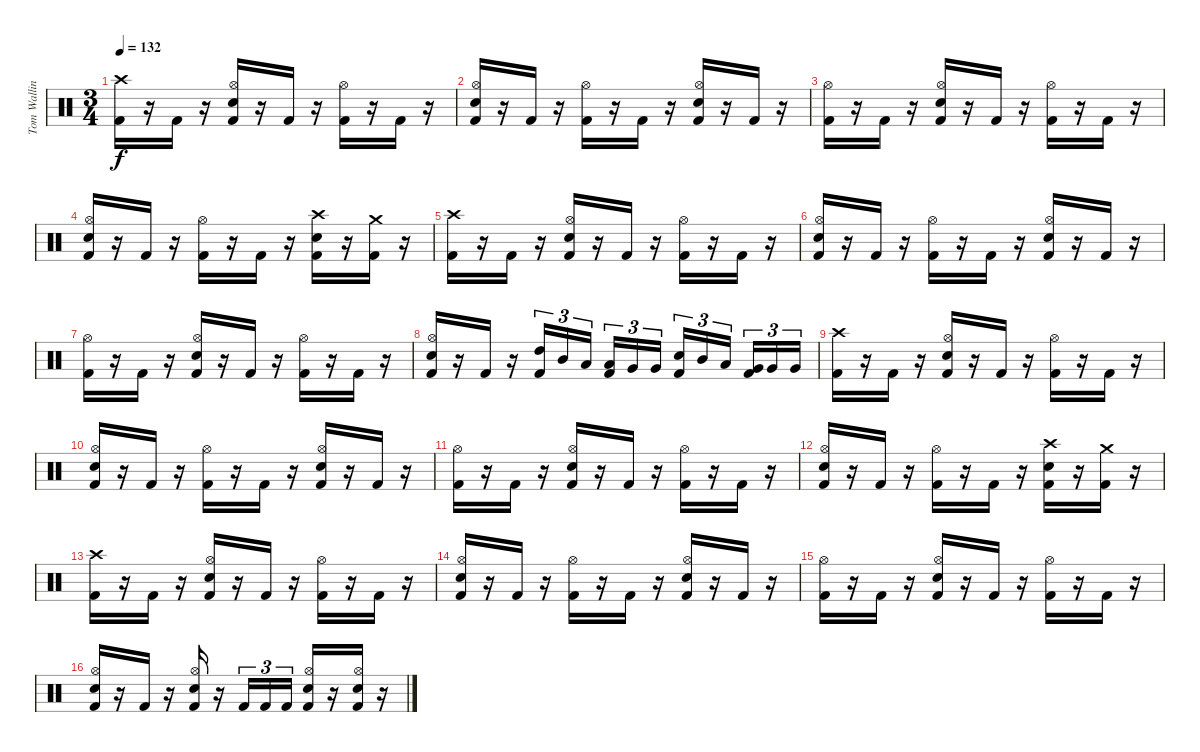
\track ("Tom Walling [Drums]" "Tom Wallin") {instrument percussion}
\staff {score}
\articulation defaults
\ts (3 4)
\tempo 132
\clef neutral
\ks c
("Crash high (hit)" "Kick (hit) 2").16{dy f} r.16 "Kick (hit) 2".16 r.16 ("Hi-Hat (open)" "Electric Snare (hit)" "Kick (hit) 2").16 r.16 "Kick (hit) 2".16 r.16 ("Hi-Hat (open)" "Kick (hit) 2").16 r.16 "Kick (hit) 2".16 r.16 |
("Hi-Hat (open)" "Electric Snare (hit)" "Kick (hit) 2").16 r.16 "Kick (hit) 2".16 r.16 ("Hi-Hat (open)" "Kick (hit) 2").16 r.16 "Kick (hit) 2".16 r.16 ("Hi-Hat (open)" "Electric Snare (hit)" "Kick (hit) 2").16 r.16 "Kick (hit) 2".16 r.16 |
("Hi-Hat (open)" "Kick (hit) 2").16 r.16 "Kick (hit) 2".16 r.16 ("Hi-Hat (open)" "Electric Snare (hit)" "Kick (hit) 2").16 r.16 "Kick (hit) 2".16 r.16 ("Hi-Hat (open)" "Kick (hit) 2").16 r.16 "Kick (hit) 2".16 r.16 |
("Hi-Hat (open)" "Electric Snare (hit)" "Kick (hit) 2").16 r.16 "Kick (hit) 2".16 r.16 ("Hi-Hat (open)" "Kick (hit) 2").16 r.16 "Kick (hit) 2".16 r.16 ("Crash high (hit)" "Electric Snare (hit)" "Kick (hit) 2").16 r.16 ("Crash medium (hit)" "Kick (hit) 2").16 r.16 |
("Crash high (hit)" "Kick (hit) 2").16 r.16 "Kick (hit) 2".16 r.16 ("Hi-Hat (open)" "Electric Snare (hit)" "Kick (hit) 2").16 r.16 "Kick (hit) 2".16 r.16 ("Hi-Hat (open)" "Kick (hit) 2").16 r.16 "Kick (hit) 2".16 r.16 |
("Hi-Hat (open)" "Electric Snare (hit)" "Kick (hit) 2").16 r.16 "Kick (hit) 2".16 r.16 ("Hi-Hat (open)" "Kick (hit) 2").16 r.16 "Kick (hit) 2".16 r.16 ("Hi-Hat (open)" "Electric Snare (hit)" "Kick (hit) 2").16 r.16 "Kick (hit) 2".16 r.16 |
("Hi-Hat (open)" "Kick (hit) 2").16 r.16 "Kick (hit) 2".16 r.16 ("Hi-Hat (open)" "Electric Snare (hit)" "Kick (hit) 2").16 r.16 "Kick (hit) 2".16 r.16 ("Hi-Hat (open)" "Kick (hit) 2").16 r.16 "Kick (hit) 2".16 r.16 |
("Hi-Hat (open)" "Electric Snare (hit)" "Kick (hit) 2").16 r.16 "Kick (hit) 2".16 r.16 ("High Tom (hit)" "Kick (hit) 2").16{tu (3 2)} "Mid Tom (hit)".16{tu (3 2)} "Low Tom (hit)".16{tu (3 2)} ("Low Tom (hit)" "Kick (hit) 2").16{tu (3 2)} "Very Low Tom (hit)".16{tu (3 2)} "Very Low Tom (hit)".16{tu (3 2)} ("Electric Snare (hit)" "Kick (hit) 2").16{tu (3 2)} "Mid Tom (hit)".16{tu (3 2)} "Low Tom (hit)".16{tu (3 2)} ("Very Low Tom (hit)" "Kick (hit) 2").16{tu (3 2)} "Very Low Tom (hit)".16{tu (3 2)} "Very Low Tom (hit)".16{tu (3 2)} |
("Crash high (hit)" "Kick (hit) 2").16 r.16 "Kick (hit) 2".16 r.16 ("Hi-Hat (open)" "Electric Snare (hit)" "Kick (hit) 2").16 r.16 "Kick (hit) 2".16 r.16 ("Hi-Hat (open)" "Kick (hit) 2").16 r.16 "Kick (hit) 2".16 r.16 |
("Hi-Hat (open)" "Electric Snare (hit)" "Kick (hit) 2").16 r.16 "Kick (hit) 2".16 r.16 ("Hi-Hat (open)" "Kick (hit) 2").16 r.16 "Kick (hit) 2".16 r.16 ("Hi-Hat (open)" "Electric Snare (hit)" "Kick (hit) 2").16 r.16 "Kick (hit) 2".16 r.16 |
("Hi-Hat (open)" "Kick (hit) 2").16 r.16 "Kick (hit) 2".16 r.16 ("Hi-Hat (open)" "Electric Snare (hit)" "Kick (hit) 2").16 r.16 "Kick (hit) 2".16 r.16 ("Hi-Hat (open)" "Kick (hit) 2").16 r.16 "Kick (hit) 2".16 r.16 |
("Hi-Hat (open)" "Electric Snare (hit)" "Kick (hit) 2").16 r.16 "Kick (hit) 2".16 r.16 ("Hi-Hat (open)" "Kick (hit) 2").16 r.16 "Kick (hit) 2".16 r.16 ("Crash high (hit)" "Electric Snare (hit)" "Kick (hit) 2").16 r.16 ("Crash medium (hit)" "Kick (hit) 2").16 r.16 |
("Crash high (hit)" "Kick (hit) 2").16 r.16 "Kick (hit) 2".16 r.16 ("Hi-Hat (open)" "Electric Snare (hit)" "Kick (hit) 2").16 r.16 "Kick (hit) 2".16 r.16 ("Hi-Hat (open)" "Kick (hit) 2").16 r.16 "Kick (hit) 2".16 r.16 |
("Hi-Hat (open)" "Electric Snare (hit)" "Kick (hit) 2").16 r.16 "Kick (hit) 2".16 r.16 ("Hi-Hat (open)" "Kick (hit) 2").16 r.16 "Kick (hit) 2".16 r.16 ("Hi-Hat (open)" "Electric Snare (hit)" "Kick (hit) 2").16 r.16 "Kick (hit) 2".16 r.16 |
("Hi-Hat (open)" "Kick (hit) 2").16 r.16 "Kick (hit) 2".16 r.16 ("Hi-Hat (open)" "Electric Snare (hit)" "Kick (hit) 2").16 r.16 "Kick (hit) 2".16 r.16 ("Hi-Hat (open)" "Kick (hit) 2").16 r.16 "Kick (hit) 2".16 r.16 |
("Hi-Hat (open)" "Electric Snare (hit)" "Kick (hit) 2").16 r.16 "Kick (hit) 2".16 r.16 ("Hi-Hat (open)" "Electric Snare (hit)" "Kick (hit) 2").16 r.16 "Kick (hit) 2".16{tu (3 2)} "Kick (hit) 2".16{tu (3 2)} "Kick (hit) 2".16{tu (3 2)} ("Hi-Hat (open)" "Electric Snare (hit)" "Kick (hit) 2").16 r.16 ("Hi-Hat (open)" "Electric Snare (hit)" "Kick (hit) 2").16 r.16
